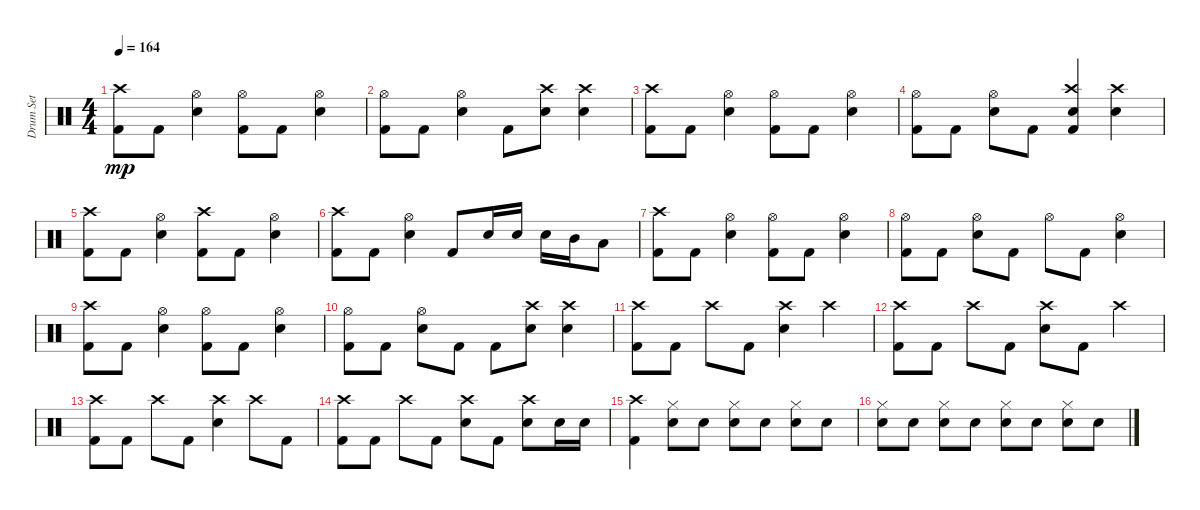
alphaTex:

\track ("Drum Set" "Drum Set") {instrument percussion}
\staff {score}
\articulation defaults
\ts (4 4)
\tempo 164
\clef neutral
\ks c
("Kick (hit) 2" "Crash high (hit)").8{dy mp} "Kick (hit) 2".8 ("Snare (hit) 2" "Hi-Hat (open)").4 ("Kick (hit) 2" "Hi-Hat (open)").8 "Kick (hit) 2".8 ("Snare (hit) 2" "Hi-Hat (open)").4 |
("Kick (hit) 2" "Hi-Hat (open)").8 "Kick (hit) 2".8 ("Snare (hit) 2" "Hi-Hat (open)").4 "Kick (hit) 2".8 ("Snare (hit) 2" "Crash high (hit)").8 ("Snare (hit) 2" "Crash high (hit)").4 |
("Kick (hit) 2" "Crash high (hit)").8 "Kick (hit) 2".8 ("Snare (hit) 2" "Hi-Hat (open)").4 ("Kick (hit) 2" "Hi-Hat (open)").8 "Kick (hit) 2".8 ("Snare (hit) 2" "Hi-Hat (open)").4 |
("Kick (hit) 2" "Hi-Hat (open)").8 "Kick (hit) 2".8 ("Snare (hit) 2" "Hi-Hat (open)").8 "Kick (hit) 2".8 ("Kick (hit) 2" "Snare (hit) 2" "Crash high (hit)").4 ("Snare (hit) 2" "Crash high (hit)").4 |
("Kick (hit) 2" "Crash high (hit)").8 "Kick (hit) 2".8 ("Snare (hit) 2" "Hi-Hat (open)").4 ("Kick (hit) 2" "Crash high (hit)").8 "Kick (hit) 2".8 ("Snare (hit) 2" "Hi-Hat (open)").4 |
("Kick (hit) 2" "Crash high (hit)").8 "Kick (hit) 2".8 ("Snare (hit) 2" "Hi-Hat (open)").4 "Kick (hit) 2".8 "Snare (hit) 2".16 "Snare (hit) 2".16 "Snare (hit) 2".16 "Mid Tom (hit)".16 "Low Tom (hit)".8 |
("Kick (hit) 2" "Crash high (hit)").8 "Kick (hit) 2".8 ("Snare (hit) 2" "Hi-Hat (open)").4 ("Kick (hit) 2" "Hi-Hat (open)").8 "Kick (hit) 2".8 ("Snare (hit) 2" "Hi-Hat (open)").4 |
("Kick (hit) 2" "Hi-Hat (open)").8 "Kick (hit) 2".8 ("Snare (hit) 2" "Hi-Hat (open)").8 "Kick (hit) 2".8 "Hi-Hat (open)".8 "Kick (hit) 2".8 ("Snare (hit) 2" "Hi-Hat (open)").4 |
("Kick (hit) 2" "Crash high (hit)").8 "Kick (hit) 2".8 ("Snare (hit) 2" "Hi-Hat (open)").4 ("Kick (hit) 2" "Hi-Hat (open)").8 "Kick (hit) 2".8 ("Snare (hit) 2" "Hi-Hat (open)").4 |
("Kick (hit) 2" "Hi-Hat (open)").8 "Kick (hit) 2".8 ("Snare (hit) 2" "Hi-Hat (open)").8 "Kick (hit) 2".8 "Kick (hit) 2".8 ("Snare (hit) 2" "Crash high (hit)").8 ("Snare (hit) 2" "Crash high (hit)").4 |
("Kick (hit) 2" "Crash high (hit)").8 "Kick (hit) 2".8 "Crash high (hit)".8 "Kick (hit) 2".8 ("Snare (hit) 2" "Crash high (hit)").4 "Crash high (hit)".4 |
("Kick (hit) 2" "Crash high (hit)").8 "Kick (hit) 2".8 "Crash high (hit)".8 "Kick (hit) 2".8 ("Snare (hit) 2" "Crash high (hit)").8 "Kick (hit) 2".8 "Crash high (hit)".4 |
("Kick (hit) 2" "Crash high (hit)").8 "Kick (hit) 2".8 "Crash high (hit)".8 "Kick (hit) 2".8 ("Snare (hit) 2" "Crash high (hit)").4 "Crash high (hit)".8 "Kick (hit) 2".8 |
("Kick (hit) 2" "Crash high (hit)").8 "Kick (hit) 2".8 "Crash high (hit)".8 "Kick (hit) 2".8 ("Snare (hit) 2" "Crash high (hit)").8 "Kick (hit) 2".8 ("Snare (hit) 2" "Crash high (hit)").8 "Snare (hit) 2".16 "Snare (hit) 2".16 |
("Kick (hit) 2" "Crash high (hit)").4 ("Snare (hit) 2" "Hi-Hat (closed)").8 "Snare (hit) 2".8 ("Snare (hit) 2" "Hi-Hat (closed)").8 "Snare (hit) 2".8 ("Snare (hit) 2" "Hi-Hat (closed)").8 "Snare (hit) 2".8 |
("Snare (hit) 2" "Hi-Hat (closed)").8 "Snare (hit) 2".8 ("Snare (hit) 2" "Hi-Hat (closed)").8 "Snare (hit) 2".8 ("Snare (hit) 2" "Hi-Hat (closed)").8 "Snare (hit) 2".8 ("Snare (hit) 2" "Hi-Hat (closed)").8 "Snare (hit) 2".8
